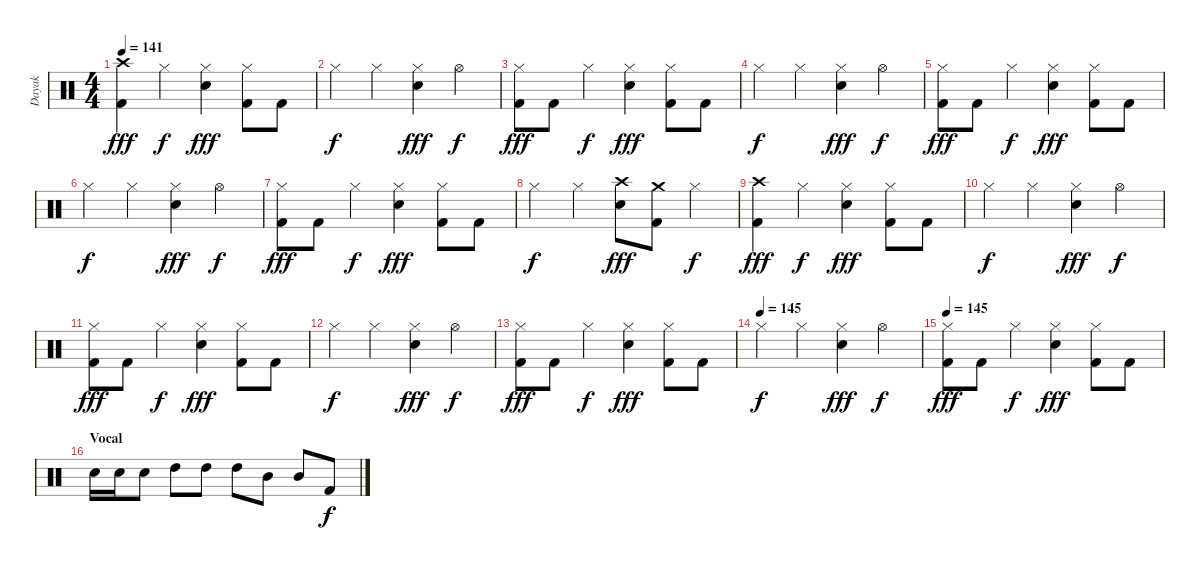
\track ("Dayak" "Dayak") {instrument percussion}
\staff {score}
\articulation defaults
\ts (4 4)
\tempo 141
\clef neutral
\ks c
("Crash high (hit)" "Kick (hit) 2").4{dy fff} "Hi-Hat (closed)".4{dy f} ("Hi-Hat (closed)" "Snare (hit) 2").4{dy fff} ("Hi-Hat (closed)" "Kick (hit) 2").8 "Kick (hit) 2".8 |
"Hi-Hat (closed)".4{dy f} "Hi-Hat (closed)".4 ("Hi-Hat (closed)" "Snare (hit) 2").4{dy fff} "Hi-Hat (open)".4{dy f} |
("Hi-Hat (closed)" "Kick (hit) 2").8{dy fff} "Kick (hit) 2".8 "Hi-Hat (closed)".4{dy f} ("Hi-Hat (closed)" "Snare (hit) 2").4{dy fff} ("Hi-Hat (closed)" "Kick (hit) 2").8 "Kick (hit) 2".8 |
"Hi-Hat (closed)".4{dy f} "Hi-Hat (closed)".4 ("Hi-Hat (closed)" "Snare (hit) 2").4{dy fff} "Hi-Hat (open)".4{dy f} |
("Hi-Hat (closed)" "Kick (hit) 2").8{dy fff} "Kick (hit) 2".8 "Hi-Hat (closed)".4{dy f} ("Hi-Hat (closed)" "Snare (hit) 2").4{dy fff} ("Hi-Hat (closed)" "Kick (hit) 2").8 "Kick (hit) 2".8 |
"Hi-Hat (closed)".4{dy f} "Hi-Hat (closed)".4 ("Hi-Hat (closed)" "Snare (hit) 2").4{dy fff} "Hi-Hat (open)".4{dy f} |
("Hi-Hat (closed)" "Kick (hit) 2").8{dy fff} "Kick (hit) 2".8 "Hi-Hat (closed)".4{dy f} ("Hi-Hat (closed)" "Snare (hit) 2").4{dy fff} ("Hi-Hat (closed)" "Kick (hit) 2").8 "Kick (hit) 2".8 |
"Hi-Hat (closed)".4{dy f} "Hi-Hat (closed)".4 ("Crash high (hit)" "Snare (hit) 2").8{dy fff} ("Crash medium (hit)" "Kick (hit) 2").8 "Hi-Hat (closed)".4{dy f} |
("Crash high (hit)" "Kick (hit) 2").4{dy fff} "Hi-Hat (closed)".4{dy f} ("Hi-Hat (closed)" "Snare (hit) 2").4{dy fff} ("Hi-Hat (closed)" "Kick (hit) 2").8 "Kick (hit) 2".8 |
"Hi-Hat (closed)".4{dy f} "Hi-Hat (closed)".4 ("Hi-Hat (closed)" "Snare (hit) 2").4{dy fff} "Hi-Hat (open)".4{dy f} |
("Hi-Hat (closed)" "Kick (hit) 2").8{dy fff} "Kick (hit) 2".8 "Hi-Hat (closed)".4{dy f} ("Hi-Hat (closed)" "Snare (hit) 2").4{dy fff} ("Hi-Hat (closed)" "Kick (hit) 2").8 "Kick (hit) 2".8 |
"Hi-Hat (closed)".4{dy f} "Hi-Hat (closed)".4 ("Hi-Hat (closed)" "Snare (hit) 2").4{dy fff} "Hi-Hat (open)".4{dy f} |
("Hi-Hat (closed)" "Kick (hit) 2").8{dy fff} "Kick (hit) 2".8 "Hi-Hat (closed)".4{dy f} ("Hi-Hat (closed)" "Snare (hit) 2").4{dy fff} ("Hi-Hat (closed)" "Kick (hit) 2").8 "Kick (hit) 2".8 |
\tempo (145)
"Hi-Hat (closed)".4{dy f} "Hi-Hat (closed)".4 ("Hi-Hat (closed)" "Snare (hit) 2").4{dy fff} "Hi-Hat (open)".4{dy f} |
\tempo 145
("Hi-Hat (closed)" "Kick (hit) 2").8{dy fff} "Kick (hit) 2".8 "Hi-Hat (closed)".4{dy f} ("Hi-Hat (closed)" "Snare (hit) 2").4{dy fff} ("Hi-Hat (closed)" "Kick (hit) 2").8 "Kick (hit) 2".8 |
\section ("" "Vocal")
"Snare (hit) 2".16 "Snare (hit) 2".16 "Snare (hit) 2".8 "High Tom (hit)".8 "High Tom (hit)".8 "High Tom (hit)".8 "Mid Tom (hit)".8 "Mid Tom (hit)".8 "Kick (hit) 2".8{dy f}
